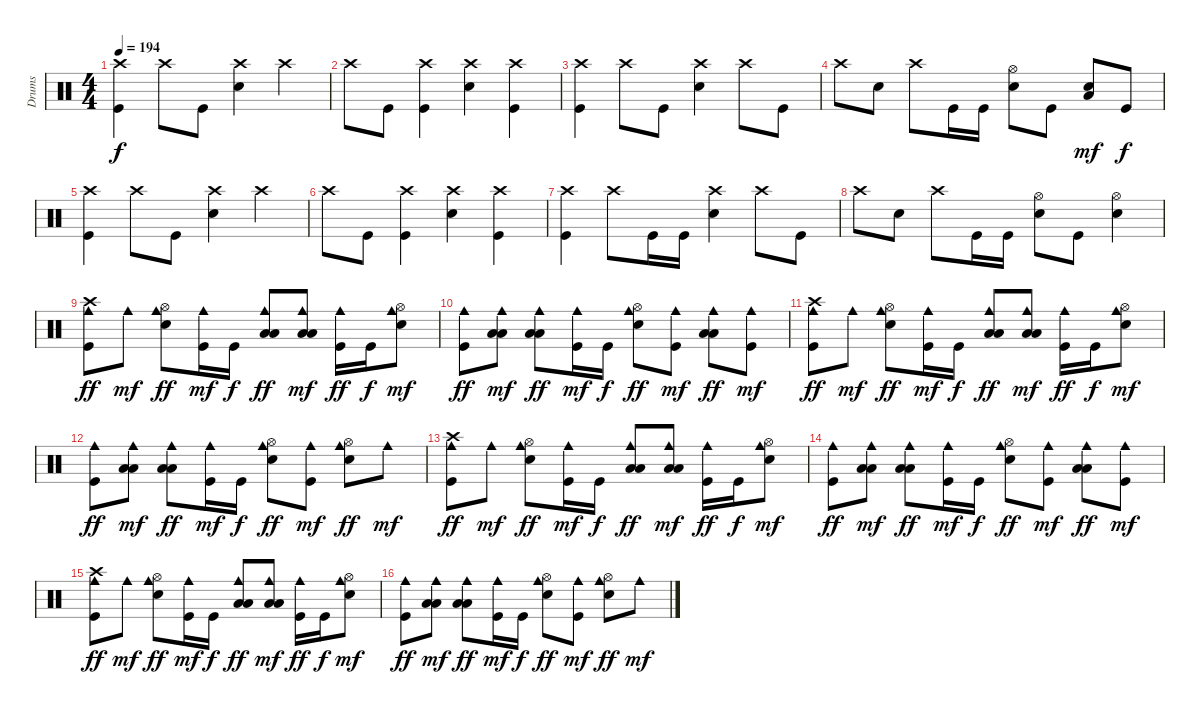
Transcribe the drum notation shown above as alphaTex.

\track ("Drums" "Drums") {instrument percussion}
\staff {score}
\articulation defaults
\ts (4 4)
\tempo 194
\clef neutral
\ks c
("Crash high (hit)" "Kick (hit)").4{dy f} "Crash high (hit)".8 "Kick (hit)".8 ("Crash high (hit)" "Electric Snare (hit)").4 "Crash high (hit)".4 |
"Crash high (hit)".8 "Kick (hit)".8 ("Crash high (hit)" "Kick (hit)").4 ("Crash high (hit)" "Electric Snare (hit)").4 ("Crash high (hit)" "Kick (hit)").4 |
("Crash high (hit)" "Kick (hit)").4 "Crash high (hit)".8 "Kick (hit)".8 ("Crash high (hit)" "Electric Snare (hit)").4 "Crash high (hit)".8 "Kick (hit)".8 |
"Crash high (hit)".8 "Electric Snare (hit)".8 "Crash high (hit)".8 "Kick (hit)".16 "Kick (hit)".16 ("Hi-Hat (open)" "Electric Snare (hit)").8 "Kick (hit)".8 ("Low Tom (hit)" "Electric Snare (hit)").8{dy mf} "Kick (hit)".8{dy f} |
("Crash high (hit)" "Kick (hit)").4 "Crash high (hit)".8 "Kick (hit)".8 ("Crash high (hit)" "Electric Snare (hit)").4 "Crash high (hit)".4 |
"Crash high (hit)".8 "Kick (hit)".8 ("Crash high (hit)" "Kick (hit)").4 ("Crash high (hit)" "Electric Snare (hit)").4 ("Crash high (hit)" "Kick (hit)").4 |
("Crash high (hit)" "Kick (hit)").4 "Crash high (hit)".8 "Kick (hit)".16 "Kick (hit)".16 ("Crash high (hit)" "Electric Snare (hit)").4 "Crash high (hit)".8 "Kick (hit)".8 |
"Crash high (hit)".8 "Electric Snare (hit)".8 "Crash high (hit)".8 "Kick (hit)".16 "Kick (hit)".16 ("Hi-Hat (open)" "Electric Snare (hit)").8 "Kick (hit)".8 ("Hi-Hat (open)" "Electric Snare (hit)").4 |
("Cowbell medium (hit)" "Crash high (hit)" "Kick (hit)").8{dy ff} "Cowbell medium (hit)".8{dy mf} ("Cowbell medium (hit)" "Hi-Hat (open)" "Electric Snare (hit)").8{dy ff} ("Cowbell medium (hit)" "Kick (hit)").16{dy mf} "Kick (hit)".16{dy f} ("Cowbell medium (hit)" "Low Floor Tom (hit)" "Low Tom (hit)").8{dy ff} ("Cowbell medium (hit)" "Low Floor Tom (hit)" "Low Tom (hit)").8{dy mf} ("Cowbell medium (hit)" "Kick (hit)").16{dy ff} "Kick (hit)".16{dy f} ("Cowbell medium (hit)" "Hi-Hat (open)" "Electric Snare (hit)").8{dy mf} |
("Cowbell medium (hit)" "Kick (hit)").8{dy ff} ("Cowbell medium (hit)" "Low Floor Tom (hit)" "Low Tom (hit)").8{dy mf} ("Cowbell medium (hit)" "Low Floor Tom (hit)" "Low Tom (hit)").8{dy ff} ("Cowbell medium (hit)" "Kick (hit)").16{dy mf} "Kick (hit)".16{dy f} ("Cowbell medium (hit)" "Hi-Hat (open)" "Electric Snare (hit)").8{dy ff} ("Cowbell medium (hit)" "Kick (hit)").8{dy mf} ("Cowbell medium (hit)" "Low Floor Tom (hit)" "Low Tom (hit)").8{dy ff} ("Cowbell medium (hit)" "Kick (hit)").8{dy mf} |
("Cowbell medium (hit)" "Crash high (hit)" "Kick (hit)").8{dy ff} "Cowbell medium (hit)".8{dy mf} ("Cowbell medium (hit)" "Hi-Hat (open)" "Electric Snare (hit)").8{dy ff} ("Cowbell medium (hit)" "Kick (hit)").16{dy mf} "Kick (hit)".16{dy f} ("Cowbell medium (hit)" "Low Floor Tom (hit)" "Low Tom (hit)").8{dy ff} ("Cowbell medium (hit)" "Low Floor Tom (hit)" "Low Tom (hit)").8{dy mf} ("Cowbell medium (hit)" "Kick (hit)").16{dy ff} "Kick (hit)".16{dy f} ("Cowbell medium (hit)" "Hi-Hat (open)" "Electric Snare (hit)").8{dy mf} |
("Cowbell medium (hit)" "Kick (hit)").8{dy ff} ("Cowbell medium (hit)" "Low Floor Tom (hit)" "Low Tom (hit)").8{dy mf} ("Cowbell medium (hit)" "Low Floor Tom (hit)" "Low Tom (hit)").8{dy ff} ("Cowbell medium (hit)" "Kick (hit)").16{dy mf} "Kick (hit)".16{dy f} ("Cowbell medium (hit)" "Hi-Hat (open)" "Electric Snare (hit)").8{dy ff} ("Cowbell medium (hit)" "Kick (hit)").8{dy mf} ("Cowbell medium (hit)" "Hi-Hat (open)" "Electric Snare (hit)").8{dy ff} "Cowbell medium (hit)".8{dy mf} |
("Cowbell medium (hit)" "Crash high (hit)" "Kick (hit)").8{dy ff} "Cowbell medium (hit)".8{dy mf} ("Cowbell medium (hit)" "Hi-Hat (open)" "Electric Snare (hit)").8{dy ff} ("Cowbell medium (hit)" "Kick (hit)").16{dy mf} "Kick (hit)".16{dy f} ("Cowbell medium (hit)" "Low Floor Tom (hit)" "Low Tom (hit)").8{dy ff} ("Cowbell medium (hit)" "Low Floor Tom (hit)" "Low Tom (hit)").8{dy mf} ("Cowbell medium (hit)" "Kick (hit)").16{dy ff} "Kick (hit)".16{dy f} ("Cowbell medium (hit)" "Hi-Hat (open)" "Electric Snare (hit)").8{dy mf} |
("Cowbell medium (hit)" "Kick (hit)").8{dy ff} ("Cowbell medium (hit)" "Low Floor Tom (hit)" "Low Tom (hit)").8{dy mf} ("Cowbell medium (hit)" "Low Floor Tom (hit)" "Low Tom (hit)").8{dy ff} ("Cowbell medium (hit)" "Kick (hit)").16{dy mf} "Kick (hit)".16{dy f} ("Cowbell medium (hit)" "Hi-Hat (open)" "Electric Snare (hit)").8{dy ff} ("Cowbell medium (hit)" "Kick (hit)").8{dy mf} ("Cowbell medium (hit)" "Low Floor Tom (hit)" "Low Tom (hit)").8{dy ff} ("Cowbell medium (hit)" "Kick (hit)").8{dy mf} |
("Cowbell medium (hit)" "Crash high (hit)" "Kick (hit)").8{dy ff} "Cowbell medium (hit)".8{dy mf} ("Cowbell medium (hit)" "Hi-Hat (open)" "Electric Snare (hit)").8{dy ff} ("Cowbell medium (hit)" "Kick (hit)").16{dy mf} "Kick (hit)".16{dy f} ("Cowbell medium (hit)" "Low Floor Tom (hit)" "Low Tom (hit)").8{dy ff} ("Cowbell medium (hit)" "Low Floor Tom (hit)" "Low Tom (hit)").8{dy mf} ("Cowbell medium (hit)" "Kick (hit)").16{dy ff} "Kick (hit)".16{dy f} ("Cowbell medium (hit)" "Hi-Hat (open)" "Electric Snare (hit)").8{dy mf} |
("Cowbell medium (hit)" "Kick (hit)").8{dy ff} ("Cowbell medium (hit)" "Low Floor Tom (hit)" "Low Tom (hit)").8{dy mf} ("Cowbell medium (hit)" "Low Floor Tom (hit)" "Low Tom (hit)").8{dy ff} ("Cowbell medium (hit)" "Kick (hit)").16{dy mf} "Kick (hit)".16{dy f} ("Cowbell medium (hit)" "Hi-Hat (open)" "Electric Snare (hit)").8{dy ff} ("Cowbell medium (hit)" "Kick (hit)").8{dy mf} ("Cowbell medium (hit)" "Hi-Hat (open)" "Electric Snare (hit)").8{dy ff} "Cowbell medium (hit)".8{dy mf}
